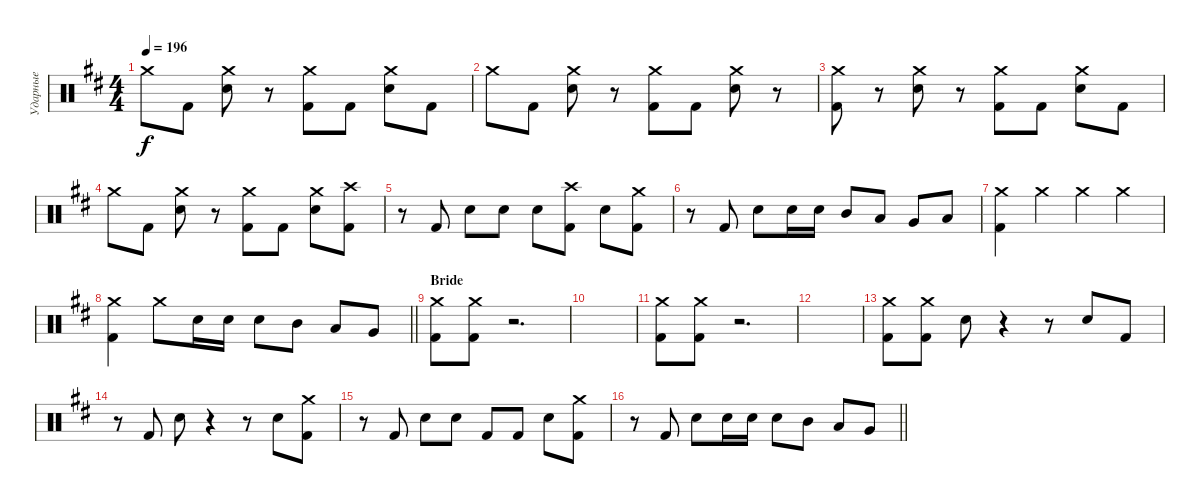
\track ("Ударные" "Ударные") {instrument percussion}
\staff {score}
\articulation defaults
\ts (4 4)
\tempo 196
\clef neutral
\ks d "Crash medium (hit)".8{dy f} "Kick (hit) 2".8
("Crash medium (hit)" "Electric Snare (hit)").8 r.8 ("Crash medium (hit)" "Kick (hit) 2").8 "Kick (hit) 2".8 ("Crash medium (hit)" "Electric Snare (hit)").8 "Kick (hit) 2".8 |
"Crash medium (hit)".8 "Kick (hit) 2".8 ("Crash medium (hit)" "Electric Snare (hit)").8 r.8 ("Crash medium (hit)" "Kick (hit) 2").8 "Kick (hit) 2".8 ("Crash medium (hit)" "Electric Snare (hit)").8 r.8 |
("Crash medium (hit)" "Kick (hit) 2").8 r.8 ("Crash medium (hit)" "Electric Snare (hit)").8 r.8 ("Crash medium (hit)" "Kick (hit) 2").8 "Kick (hit) 2".8 ("Crash medium (hit)" "Electric Snare (hit)").8 "Kick (hit) 2".8 |
"Crash medium (hit)".8 "Kick (hit) 2".8 ("Crash medium (hit)" "Electric Snare (hit)").8 r.8 ("Crash medium (hit)" "Kick (hit) 2").8 "Kick (hit) 2".8 ("Crash medium (hit)" "Electric Snare (hit)").8 ("Crash high (hit)" "Kick (hit) 2").8 |
r.8 "Kick (hit) 2".8 "Electric Snare (hit)".8 "Electric Snare (hit)".8 "Electric Snare (hit)".8 ("Crash high (hit)" "Kick (hit) 2").8 "Electric Snare (hit)".8 ("Crash medium (hit)" "Kick (hit) 2").8 |
r.8 "Kick (hit) 2".8 "Electric Snare (hit)".8 "Electric Snare (hit)".16 "Electric Snare (hit)".16 "Mid Tom (hit)".8 "Low Tom (hit)".8 "Very Low Tom (hit)".8 "Low Floor Tom (hit)".8 |
("Crash medium (hit)" "Kick (hit) 2").4 "Crash medium (hit)".4 "Crash medium (hit)".4 "Crash medium (hit)".4 |
\barLineRight lightlight
("Crash medium (hit)" "Kick (hit) 2").4 "Crash medium (hit)".8 "Electric Snare (hit)".16 "Electric Snare (hit)".16 "Electric Snare (hit)".8 "Mid Tom (hit)".8 "Low Tom (hit)".8 "Very Low Tom (hit)".8 |
\section ("" "Bride")
("Crash medium (hit)" "Kick (hit) 2").8 ("Crash medium (hit)" "Kick (hit) 2").8 r.2{d} |
|
("Crash medium (hit)" "Kick (hit) 2").8 ("Crash medium (hit)" "Kick (hit) 2").8 r.2{d} |
|
("Crash medium (hit)" "Kick (hit) 2").8 ("Crash medium (hit)" "Kick (hit) 2").8 "Electric Snare (hit)".8 r.4 r.8 "Electric Snare (hit)".8 "Kick (hit) 2".8 |
r.8 "Kick (hit) 2".8 "Electric Snare (hit)".8 r.4 r.8 "Electric Snare (hit)".8 ("Crash medium (hit)" "Kick (hit) 2").8 |
r.8 "Kick (hit) 2".8 "Electric Snare (hit)".8 "Electric Snare (hit)".8 "Kick (hit) 2".8 "Kick (hit) 2".8 "Electric Snare (hit)".8 ("Crash medium (hit)" "Kick (hit) 2").8 |
\barLineRight lightlight
r.8 "Kick (hit) 2".8 "Electric Snare (hit)".8 "Electric Snare (hit)".16 "Electric Snare (hit)".16 "Electric Snare (hit)".8 "Mid Tom (hit)".8 "Low Tom (hit)".8 "Very Low Tom (hit)".8
